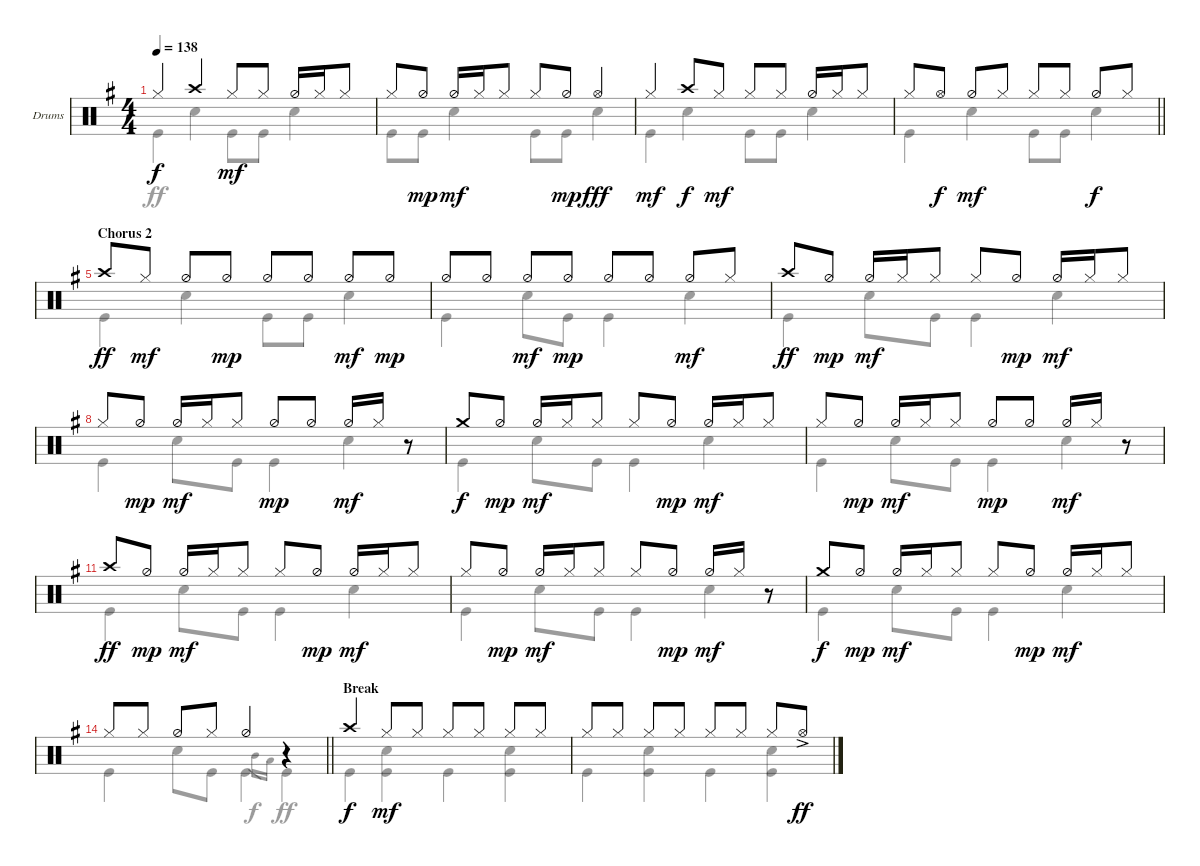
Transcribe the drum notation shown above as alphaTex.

\defaultSystemsLayout 4
\bracketExtendMode groupsimilarinstruments
\useSystemSignSeparator
\multiBarRest
\multiTrackTrackNamePolicy allsystems
\firstSystemTrackNameMode fullname
\firstSystemTrackNameOrientation horizontal
\otherSystemsTrackNameOrientation horizontal
\defaultBarNumberDisplay FirstOfSystem
\track ("Drums" "Dr.") {multiBarRest instrument percussion}
\staff {score}
\articulation defaults
\voice
\ts (4 4)
\tempo 138
\clef neutral
\ks g "Hi-Hat (closed)".4{dy f} "Crash high (hit)".4 "Hi-Hat (closed)".8{dy mf} "Hi-Hat (closed)".8 "Hi-Hat (half)".16 "Hi-Hat (closed)".16 "Hi-Hat (closed)".8
|
"Hi-Hat (closed)".8 "Hi-Hat (half)".8{dy mp} "Hi-Hat (half)".16{dy mf} "Hi-Hat (closed)".16 "Hi-Hat (closed)".8 "Hi-Hat (closed)".8 "Hi-Hat (half)".8{dy mp} "Hi-Hat (open)".4{dy fff} |
"Hi-Hat (closed)".4{dy mf} "Crash high (hit)".8{dy f} "Hi-Hat (closed)".8{dy mf} "Hi-Hat (closed)".8 "Hi-Hat (closed)".8 "Hi-Hat (half)".16 "Hi-Hat (closed)".16 "Hi-Hat (closed)".8 |
\barLineRight lightlight "Hi-Hat (closed)".8 "Hi-Hat (open)".8{dy f} "Hi-Hat (half)".8{dy mf} "Hi-Hat (closed)".8 "Hi-Hat (closed)".8 "Hi-Hat (closed)".8 "Hi-Hat (half)".8{dy f} "Hi-Hat (closed)".8
|
\section ("" "Chorus 2")
"Crash high (hit)".8{dy ff} "Hi-Hat (closed)".8{dy mf} "Hi-Hat (half)".8 "Hi-Hat (half)".8{dy mp} "Hi-Hat (half)".8 "Hi-Hat (half)".8 "Hi-Hat (half)".8{dy mf} "Hi-Hat (half)".8{dy mp} |
"Hi-Hat (half)".8 "Hi-Hat (half)".8 "Hi-Hat (half)".8{dy mf} "Hi-Hat (half)".8{dy mp} "Hi-Hat (half)".8 "Hi-Hat (half)".8 "Hi-Hat (half)".8{dy mf} "Hi-Hat (closed)".8 |
"Crash high (hit)".8{dy ff} "Hi-Hat (half)".8{dy mp} "Hi-Hat (half)".16{dy mf} "Hi-Hat (closed)".16 "Hi-Hat (closed)".8 "Hi-Hat (closed)".8 "Hi-Hat (half)".8{dy mp} "Hi-Hat (half)".16{dy mf} "Hi-Hat (closed)".16 "Hi-Hat (closed)".8 |
"Hi-Hat (closed)".8 "Hi-Hat (half)".8{dy mp} "Hi-Hat (half)".16{dy mf} "Hi-Hat (closed)".16 "Hi-Hat (closed)".8 "Hi-Hat (half)".8{dy mp} "Hi-Hat (half)".8 "Hi-Hat (half)".16{dy mf} "Hi-Hat (closed)".16 r.8 |
"Crash medium (hit)".8{dy f} "Hi-Hat (half)".8{dy mp} "Hi-Hat (half)".16{dy mf} "Hi-Hat (closed)".16 "Hi-Hat (closed)".8 "Hi-Hat (closed)".8 "Hi-Hat (half)".8{dy mp} "Hi-Hat (half)".16{dy mf} "Hi-Hat (closed)".16 "Hi-Hat (closed)".8 |
"Hi-Hat (closed)".8 "Hi-Hat (half)".8{dy mp} "Hi-Hat (half)".16{dy mf} "Hi-Hat (closed)".16 "Hi-Hat (closed)".8 "Hi-Hat (half)".8{dy mp} "Hi-Hat (half)".8 "Hi-Hat (half)".16{dy mf} "Hi-Hat (closed)".16 r.8 |
"Crash high (hit)".8{dy ff} "Hi-Hat (half)".8{dy mp} "Hi-Hat (half)".16{dy mf} "Hi-Hat (closed)".16 "Hi-Hat (closed)".8 "Hi-Hat (closed)".8 "Hi-Hat (half)".8{dy mp} "Hi-Hat (half)".16{dy mf} "Hi-Hat (closed)".16 "Hi-Hat (closed)".8 |
"Hi-Hat (closed)".8 "Hi-Hat (half)".8{dy mp} "Hi-Hat (half)".16{dy mf} "Hi-Hat (closed)".16 "Hi-Hat (closed)".8 "Hi-Hat (closed)".8 "Hi-Hat (half)".8{dy mp} "Hi-Hat (half)".16{dy mf} "Hi-Hat (closed)".16 r.8 |
"Crash medium (hit)".8{dy f} "Hi-Hat (half)".8{dy mp} "Hi-Hat (half)".16{dy mf} "Hi-Hat (closed)".16 "Hi-Hat (closed)".8 "Hi-Hat (closed)".8 "Hi-Hat (half)".8{dy mp} "Hi-Hat (half)".16{dy mf} "Hi-Hat (closed)".16 "Hi-Hat (closed)".8 |
\barLineRight lightlight "Hi-Hat (closed)".8 "Hi-Hat (closed)".8 "Hi-Hat (half)".8 "Hi-Hat (closed)".8 "Hi-Hat (half)".4
r.4 |
\section ("" "Break")
"Crash high (hit)".4{dy f} "Hi-Hat (closed)".8{dy mf} "Hi-Hat (closed)".8 "Hi-Hat (closed)".8 "Hi-Hat (closed)".8 "Hi-Hat (closed)".8 "Hi-Hat (closed)".8 |
"Hi-Hat (closed)".8 "Hi-Hat (closed)".8 "Hi-Hat (closed)".8 "Hi-Hat (closed)".8 "Hi-Hat (closed)".8 "Hi-Hat (closed)".8 "Hi-Hat (closed)".8 "Hi-Hat (open)"{ac}.8{dy ff}
\voice
\clef neutral
\ottava regular
\simile none
\ks g "Kick (hit)".4{dy ff} "Snare (hit) 2".4 "Kick (hit)".8 "Kick (hit)".8 "Snare (hit) 2".4
|
"Kick (hit)".8 "Kick (hit)".8 "Snare (hit) 2".4 "Kick (hit)".8 "Kick (hit)".8 "Snare (hit) 2".4 |
"Kick (hit)".4 "Snare (hit) 2".4 "Kick (hit)".8 "Kick (hit)".8 "Snare (hit) 2".4 |
\barLineRight lightlight "Kick (hit)".4 "Snare (hit) 2".4 "Kick (hit)".8 "Kick (hit)".8 "Snare (hit) 2".4
|
"Kick (hit)".4 "Snare (hit) 2".4 "Kick (hit)".8 "Kick (hit)".8 "Snare (hit) 2".4 |
"Kick (hit)".4 "Snare (hit) 2".8 "Kick (hit)".8 "Kick (hit)".4 "Snare (hit) 2".4 |
"Kick (hit)".4 "Snare (hit) 2".8 "Kick (hit)".8 "Kick (hit)".4 "Snare (hit) 2".4 |
"Kick (hit)".4 "Snare (hit) 2".8 "Kick (hit)".8 "Kick (hit)".4 "Snare (hit) 2".4 |
"Kick (hit)".4 "Snare (hit) 2".8 "Kick (hit)".8 "Kick (hit)".4 "Snare (hit) 2".4 |
"Kick (hit)".4 "Snare (hit) 2".8 "Kick (hit)".8 "Kick (hit)".4 "Snare (hit) 2".4 |
"Kick (hit)".4 "Snare (hit) 2".8 "Kick (hit)".8 "Kick (hit)".4 "Snare (hit) 2".4 |
"Kick (hit)".4 "Snare (hit) 2".8 "Kick (hit)".8 "Kick (hit)".4 "Snare (hit) 2".4 |
"Kick (hit)".4 "Snare (hit) 2".8 "Kick (hit)".8 "Kick (hit)".4 "Snare (hit) 2".4 |
\barLineRight lightlight "Kick (hit)".4 "Snare (hit) 2".8 "Kick (hit)".8 "Kick (hit)".4 "Mid Tom (hit)".16{gr dy f} "Low Tom (hit)".16{gr} "Kick (hit)".4{dy ff}
|
"Kick (hit)".4{dy f} ("Kick (hit)" "Snare (hit) 2").4 "Kick (hit)".4 ("Kick (hit)" "Snare (hit) 2").4 |
"Kick (hit)".4 ("Kick (hit)" "Snare (hit) 2").4 "Kick (hit)".4 ("Kick (hit)" "Snare (hit) 2").4
